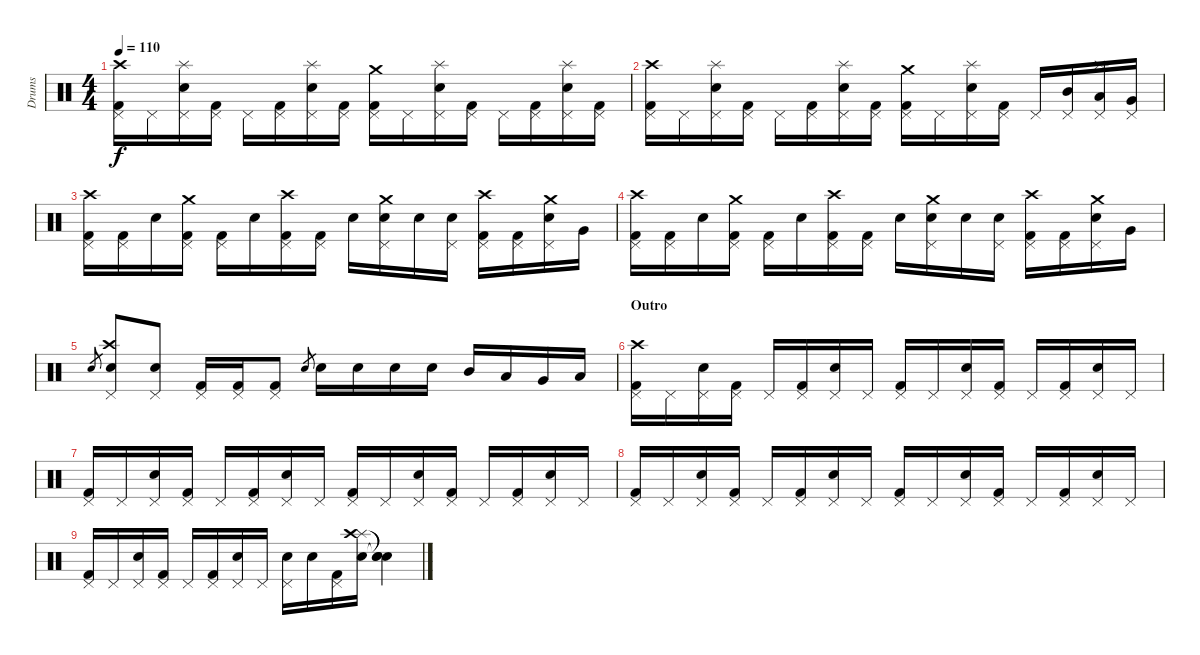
\track ("Drums" "Drums") {instrument percussion}
\staff {score}
\articulation defaults
\ts (4 4)
\tempo 110
\clef neutral
\ks c
("Kick (hit) 2" "Pedal Hi-Hat (hit)" "Crash high (hit)").16{dy f} "Pedal Hi-Hat (hit)".16 ("Snare (hit) 2" "Pedal Hi-Hat (hit)" "Splash (hit)").16 ("Kick (hit) 2" "Pedal Hi-Hat (hit)").16 "Pedal Hi-Hat (hit)".16 ("Kick (hit) 2" "Pedal Hi-Hat (hit)").16 ("Snare (hit) 2" "Pedal Hi-Hat (hit)" "Splash (hit)").16 ("Kick (hit) 2" "Pedal Hi-Hat (hit)").16 ("Kick (hit) 2" "Pedal Hi-Hat (hit)" "Crash medium (hit)").16 "Pedal Hi-Hat (hit)".16 ("Snare (hit) 2" "Pedal Hi-Hat (hit)" "Splash (hit)").16 ("Kick (hit) 2" "Pedal Hi-Hat (hit)").16 "Pedal Hi-Hat (hit)".16 ("Kick (hit) 2" "Pedal Hi-Hat (hit)").16 ("Snare (hit) 2" "Pedal Hi-Hat (hit)" "Splash (hit)").16 ("Kick (hit) 2" "Pedal Hi-Hat (hit)").16 |
("Kick (hit) 2" "Pedal Hi-Hat (hit)" "Crash high (hit)").16 "Pedal Hi-Hat (hit)".16 ("Snare (hit) 2" "Pedal Hi-Hat (hit)" "Splash (hit)").16 ("Kick (hit) 2" "Pedal Hi-Hat (hit)").16 "Pedal Hi-Hat (hit)".16 ("Kick (hit) 2" "Pedal Hi-Hat (hit)").16 ("Snare (hit) 2" "Pedal Hi-Hat (hit)" "Splash (hit)").16 ("Kick (hit) 2" "Pedal Hi-Hat (hit)").16 ("Kick (hit) 2" "Pedal Hi-Hat (hit)" "Crash medium (hit)").16 "Pedal Hi-Hat (hit)".16 ("Snare (hit) 2" "Pedal Hi-Hat (hit)" "Splash (hit)").16 ("Kick (hit) 2" "Pedal Hi-Hat (hit)").16 "Pedal Hi-Hat (hit)".16 ("Mid Tom (hit)" "Pedal Hi-Hat (hit)").16 ("Low Tom (hit)" "Pedal Hi-Hat (hit)" "Splash (hit)").16 ("Very Low Tom (hit)" "Pedal Hi-Hat (hit)").16 |
("Kick (hit) 2" "Pedal Hi-Hat (hit)" "Crash high (hit)").16 ("Kick (hit) 2" "Pedal Hi-Hat (hit)").16 "Snare (hit) 2".16 ("Kick (hit) 2" "Pedal Hi-Hat (hit)" "Crash medium (hit)").16 ("Kick (hit) 2" "Pedal Hi-Hat (hit)").16 "Snare (hit) 2".16 ("Kick (hit) 2" "Pedal Hi-Hat (hit)" "Crash high (hit)").16 ("Kick (hit) 2" "Pedal Hi-Hat (hit)").16 "Snare (hit) 2".16 ("Snare (hit) 2" "Pedal Hi-Hat (hit)" "Crash medium (hit)").16 "Snare (hit) 2".16 ("Snare (hit) 2" "Pedal Hi-Hat (hit)").16 ("Kick (hit) 2" "Pedal Hi-Hat (hit)" "Crash high (hit)").16 ("Kick (hit) 2" "Pedal Hi-Hat (hit)").16 ("Snare (hit) 2" "Pedal Hi-Hat (hit)" "Crash medium (hit)").16 "Very Low Tom (hit)".16 |
("Kick (hit) 2" "Pedal Hi-Hat (hit)" "Crash high (hit)").16 ("Kick (hit) 2" "Pedal Hi-Hat (hit)").16 "Snare (hit) 2".16 ("Kick (hit) 2" "Pedal Hi-Hat (hit)" "Crash medium (hit)").16 ("Kick (hit) 2" "Pedal Hi-Hat (hit)").16 "Snare (hit) 2".16 ("Kick (hit) 2" "Pedal Hi-Hat (hit)" "Crash high (hit)").16 ("Kick (hit) 2" "Pedal Hi-Hat (hit)").16 "Snare (hit) 2".16 ("Snare (hit) 2" "Pedal Hi-Hat (hit)" "Crash medium (hit)").16 "Snare (hit) 2".16 ("Snare (hit) 2" "Pedal Hi-Hat (hit)").16 ("Kick (hit) 2" "Pedal Hi-Hat (hit)" "Crash high (hit)").16 ("Kick (hit) 2" "Pedal Hi-Hat (hit)").16 ("Snare (hit) 2" "Pedal Hi-Hat (hit)" "Crash medium (hit)").16 "Very Low Tom (hit)".16 |
"Snare (hit) 2".8{gr} ("Snare (hit) 2" "Pedal Hi-Hat (hit)" "Crash high (hit)").8 ("Snare (hit) 2" "Pedal Hi-Hat (hit)").8 ("Kick (hit) 2" "Pedal Hi-Hat (hit)").16 ("Kick (hit) 2" "Pedal Hi-Hat (hit)").16 ("Kick (hit) 2" "Pedal Hi-Hat (hit)").8 "Snare (hit) 2".8{gr} "Snare (hit) 2".16 "Snare (hit) 2".16 "Snare (hit) 2".16 "Snare (hit) 2".16 "Mid Tom (hit)".16 "Low Tom (hit)".16 "Very Low Tom (hit)".16 "Low Floor Tom (hit)".16 |
\section ("" "Outro")
("Kick (hit) 2" "Pedal Hi-Hat (hit)" "Crash high (hit)").16 "Pedal Hi-Hat (hit)".16 ("Snare (hit) 2" "Pedal Hi-Hat (hit)").16 ("Kick (hit) 2" "Pedal Hi-Hat (hit)").16 "Pedal Hi-Hat (hit)".16 ("Kick (hit) 2" "Pedal Hi-Hat (hit)").16 ("Snare (hit) 2" "Pedal Hi-Hat (hit)").16 "Pedal Hi-Hat (hit)".16 ("Kick (hit) 2" "Pedal Hi-Hat (hit)").16 "Pedal Hi-Hat (hit)".16 ("Snare (hit) 2" "Pedal Hi-Hat (hit)").16 ("Kick (hit) 2" "Pedal Hi-Hat (hit)").16 "Pedal Hi-Hat (hit)".16 ("Kick (hit) 2" "Pedal Hi-Hat (hit)").16 ("Snare (hit) 2" "Pedal Hi-Hat (hit)").16 "Pedal Hi-Hat (hit)".16 |
("Kick (hit) 2" "Pedal Hi-Hat (hit)").16 "Pedal Hi-Hat (hit)".16 ("Snare (hit) 2" "Pedal Hi-Hat (hit)").16 ("Kick (hit) 2" "Pedal Hi-Hat (hit)").16 "Pedal Hi-Hat (hit)".16 ("Kick (hit) 2" "Pedal Hi-Hat (hit)").16 ("Snare (hit) 2" "Pedal Hi-Hat (hit)").16 "Pedal Hi-Hat (hit)".16 ("Kick (hit) 2" "Pedal Hi-Hat (hit)").16 "Pedal Hi-Hat (hit)".16 ("Snare (hit) 2" "Pedal Hi-Hat (hit)").16 ("Kick (hit) 2" "Pedal Hi-Hat (hit)").16 "Pedal Hi-Hat (hit)".16 ("Kick (hit) 2" "Pedal Hi-Hat (hit)").16 ("Snare (hit) 2" "Pedal Hi-Hat (hit)").16 "Pedal Hi-Hat (hit)".16 |
("Kick (hit) 2" "Pedal Hi-Hat (hit)").16 "Pedal Hi-Hat (hit)".16 ("Snare (hit) 2" "Pedal Hi-Hat (hit)").16 ("Kick (hit) 2" "Pedal Hi-Hat (hit)").16 "Pedal Hi-Hat (hit)".16 ("Kick (hit) 2" "Pedal Hi-Hat (hit)").16 ("Snare (hit) 2" "Pedal Hi-Hat (hit)").16 "Pedal Hi-Hat (hit)".16 ("Kick (hit) 2" "Pedal Hi-Hat (hit)").16 "Pedal Hi-Hat (hit)".16 ("Snare (hit) 2" "Pedal Hi-Hat (hit)").16 ("Kick (hit) 2" "Pedal Hi-Hat (hit)").16 "Pedal Hi-Hat (hit)".16 ("Kick (hit) 2" "Pedal Hi-Hat (hit)").16 ("Snare (hit) 2" "Pedal Hi-Hat (hit)").16 "Pedal Hi-Hat (hit)".16 |
("Kick (hit) 2" "Pedal Hi-Hat (hit)").16 "Pedal Hi-Hat (hit)".16 ("Snare (hit) 2" "Pedal Hi-Hat (hit)").16 ("Kick (hit) 2" "Pedal Hi-Hat (hit)").16 "Pedal Hi-Hat (hit)".16 ("Kick (hit) 2" "Pedal Hi-Hat (hit)").16 ("Snare (hit) 2" "Pedal Hi-Hat (hit)").16 "Pedal Hi-Hat (hit)".16 ("Snare (hit) 2" "Pedal Hi-Hat (hit)").16 "Snare (hit) 2".16 ("Kick (hit) 2" "Pedal Hi-Hat (hit)").16 ("Snare (hit) 2" "Splash (hit)" "Crash high (hit)").16 ("Snare (hit)"{t} "Snare (hit)"{t} "Snare (hit)"{t}).4
